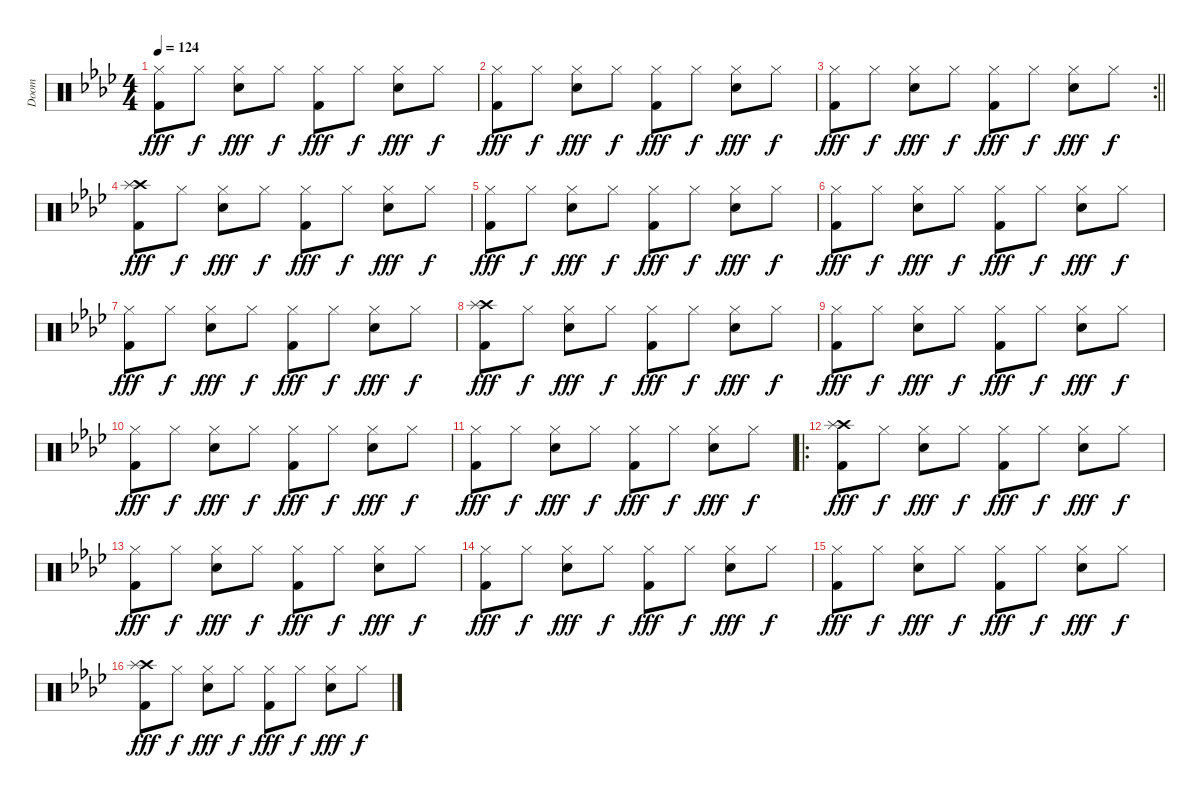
\track ("Doom" "Doom") {instrument percussion}
\staff {score}
\articulation defaults
\ts (4 4)
\tempo 124
\clef neutral
\ks ab
("Hi-Hat (closed)" "Kick (hit) 2").8{dy fff} "Hi-Hat (closed)".8{dy f} ("Hi-Hat (closed)" "Snare (hit) 2").8{dy fff} "Hi-Hat (closed)".8{dy f} ("Hi-Hat (closed)" "Kick (hit) 2").8{dy fff} "Hi-Hat (closed)".8{dy f} ("Hi-Hat (closed)" "Snare (hit) 2").8{dy fff} "Hi-Hat (closed)".8{dy f} |
("Hi-Hat (closed)" "Kick (hit) 2").8{dy fff} "Hi-Hat (closed)".8{dy f} ("Hi-Hat (closed)" "Snare (hit) 2").8{dy fff} "Hi-Hat (closed)".8{dy f} ("Hi-Hat (closed)" "Kick (hit) 2").8{dy fff} "Hi-Hat (closed)".8{dy f} ("Hi-Hat (closed)" "Snare (hit) 2").8{dy fff} "Hi-Hat (closed)".8{dy f} |
\rc 2
\barLineRight lightlight
("Hi-Hat (closed)" "Kick (hit) 2").8{dy fff} "Hi-Hat (closed)".8{dy f} ("Hi-Hat (closed)" "Snare (hit) 2").8{dy fff} "Hi-Hat (closed)".8{dy f} ("Hi-Hat (closed)" "Kick (hit) 2").8{dy fff} "Hi-Hat (closed)".8{dy f} ("Hi-Hat (closed)" "Snare (hit) 2").8{dy fff} "Hi-Hat (closed)".8{dy f} |
("Crash high (hit)" "Splash (hit)" "Kick (hit) 2").8{dy fff} "Hi-Hat (closed)".8{dy f} ("Hi-Hat (closed)" "Snare (hit) 2").8{dy fff} "Hi-Hat (closed)".8{dy f} ("Hi-Hat (closed)" "Kick (hit) 2").8{dy fff} "Hi-Hat (closed)".8{dy f} ("Hi-Hat (closed)" "Snare (hit) 2").8{dy fff} "Hi-Hat (closed)".8{dy f} |
("Hi-Hat (closed)" "Kick (hit) 2").8{dy fff} "Hi-Hat (closed)".8{dy f} ("Hi-Hat (closed)" "Snare (hit) 2").8{dy fff} "Hi-Hat (closed)".8{dy f} ("Hi-Hat (closed)" "Kick (hit) 2").8{dy fff} "Hi-Hat (closed)".8{dy f} ("Hi-Hat (closed)" "Snare (hit) 2").8{dy fff} "Hi-Hat (closed)".8{dy f} |
("Hi-Hat (closed)" "Kick (hit) 2").8{dy fff} "Hi-Hat (closed)".8{dy f} ("Hi-Hat (closed)" "Snare (hit) 2").8{dy fff} "Hi-Hat (closed)".8{dy f} ("Hi-Hat (closed)" "Kick (hit) 2").8{dy fff} "Hi-Hat (closed)".8{dy f} ("Hi-Hat (closed)" "Snare (hit) 2").8{dy fff} "Hi-Hat (closed)".8{dy f} |
("Hi-Hat (closed)" "Kick (hit) 2").8{dy fff} "Hi-Hat (closed)".8{dy f} ("Hi-Hat (closed)" "Snare (hit) 2").8{dy fff} "Hi-Hat (closed)".8{dy f} ("Hi-Hat (closed)" "Kick (hit) 2").8{dy fff} "Hi-Hat (closed)".8{dy f} ("Hi-Hat (closed)" "Snare (hit) 2").8{dy fff} "Hi-Hat (closed)".8{dy f} |
("Crash high (hit)" "Splash (hit)" "Kick (hit) 2").8{dy fff} "Hi-Hat (closed)".8{dy f} ("Hi-Hat (closed)" "Snare (hit) 2").8{dy fff} "Hi-Hat (closed)".8{dy f} ("Hi-Hat (closed)" "Kick (hit) 2").8{dy fff} "Hi-Hat (closed)".8{dy f} ("Hi-Hat (closed)" "Snare (hit) 2").8{dy fff} "Hi-Hat (closed)".8{dy f} |
("Hi-Hat (closed)" "Kick (hit) 2").8{dy fff} "Hi-Hat (closed)".8{dy f} ("Hi-Hat (closed)" "Snare (hit) 2").8{dy fff} "Hi-Hat (closed)".8{dy f} ("Hi-Hat (closed)" "Kick (hit) 2").8{dy fff} "Hi-Hat (closed)".8{dy f} ("Hi-Hat (closed)" "Snare (hit) 2").8{dy fff} "Hi-Hat (closed)".8{dy f} |
("Hi-Hat (closed)" "Kick (hit) 2").8{dy fff} "Hi-Hat (closed)".8{dy f} ("Hi-Hat (closed)" "Snare (hit) 2").8{dy fff} "Hi-Hat (closed)".8{dy f} ("Hi-Hat (closed)" "Kick (hit) 2").8{dy fff} "Hi-Hat (closed)".8{dy f} ("Hi-Hat (closed)" "Snare (hit) 2").8{dy fff} "Hi-Hat (closed)".8{dy f} |
("Hi-Hat (closed)" "Kick (hit) 2").8{dy fff} "Hi-Hat (closed)".8{dy f} ("Hi-Hat (closed)" "Snare (hit) 2").8{dy fff} "Hi-Hat (closed)".8{dy f} ("Hi-Hat (closed)" "Kick (hit) 2").8{dy fff} "Hi-Hat (closed)".8{dy f} ("Hi-Hat (closed)" "Snare (hit) 2").8{dy fff} "Hi-Hat (closed)".8{dy f} |
\ro
("Crash high (hit)" "Splash (hit)" "Kick (hit) 2").8{dy fff} "Hi-Hat (closed)".8{dy f} ("Hi-Hat (closed)" "Snare (hit) 2").8{dy fff} "Hi-Hat (closed)".8{dy f} ("Hi-Hat (closed)" "Kick (hit) 2").8{dy fff} "Hi-Hat (closed)".8{dy f} ("Hi-Hat (closed)" "Snare (hit) 2").8{dy fff} "Hi-Hat (closed)".8{dy f} |
("Hi-Hat (closed)" "Kick (hit) 2").8{dy fff} "Hi-Hat (closed)".8{dy f} ("Hi-Hat (closed)" "Snare (hit) 2").8{dy fff} "Hi-Hat (closed)".8{dy f} ("Hi-Hat (closed)" "Kick (hit) 2").8{dy fff} "Hi-Hat (closed)".8{dy f} ("Hi-Hat (closed)" "Snare (hit) 2").8{dy fff} "Hi-Hat (closed)".8{dy f} |
("Hi-Hat (closed)" "Kick (hit) 2").8{dy fff} "Hi-Hat (closed)".8{dy f} ("Hi-Hat (closed)" "Snare (hit) 2").8{dy fff} "Hi-Hat (closed)".8{dy f} ("Hi-Hat (closed)" "Kick (hit) 2").8{dy fff} "Hi-Hat (closed)".8{dy f} ("Hi-Hat (closed)" "Snare (hit) 2").8{dy fff} "Hi-Hat (closed)".8{dy f} |
("Hi-Hat (closed)" "Kick (hit) 2").8{dy fff} "Hi-Hat (closed)".8{dy f} ("Hi-Hat (closed)" "Snare (hit) 2").8{dy fff} "Hi-Hat (closed)".8{dy f} ("Hi-Hat (closed)" "Kick (hit) 2").8{dy fff} "Hi-Hat (closed)".8{dy f} ("Hi-Hat (closed)" "Snare (hit) 2").8{dy fff} "Hi-Hat (closed)".8{dy f} |
("Crash high (hit)" "Splash (hit)" "Kick (hit) 2").8{dy fff} "Hi-Hat (closed)".8{dy f} ("Hi-Hat (closed)" "Snare (hit) 2").8{dy fff} "Hi-Hat (closed)".8{dy f} ("Hi-Hat (closed)" "Kick (hit) 2").8{dy fff} "Hi-Hat (closed)".8{dy f} ("Hi-Hat (closed)" "Snare (hit) 2").8{dy fff} "Hi-Hat (closed)".8{dy f}
